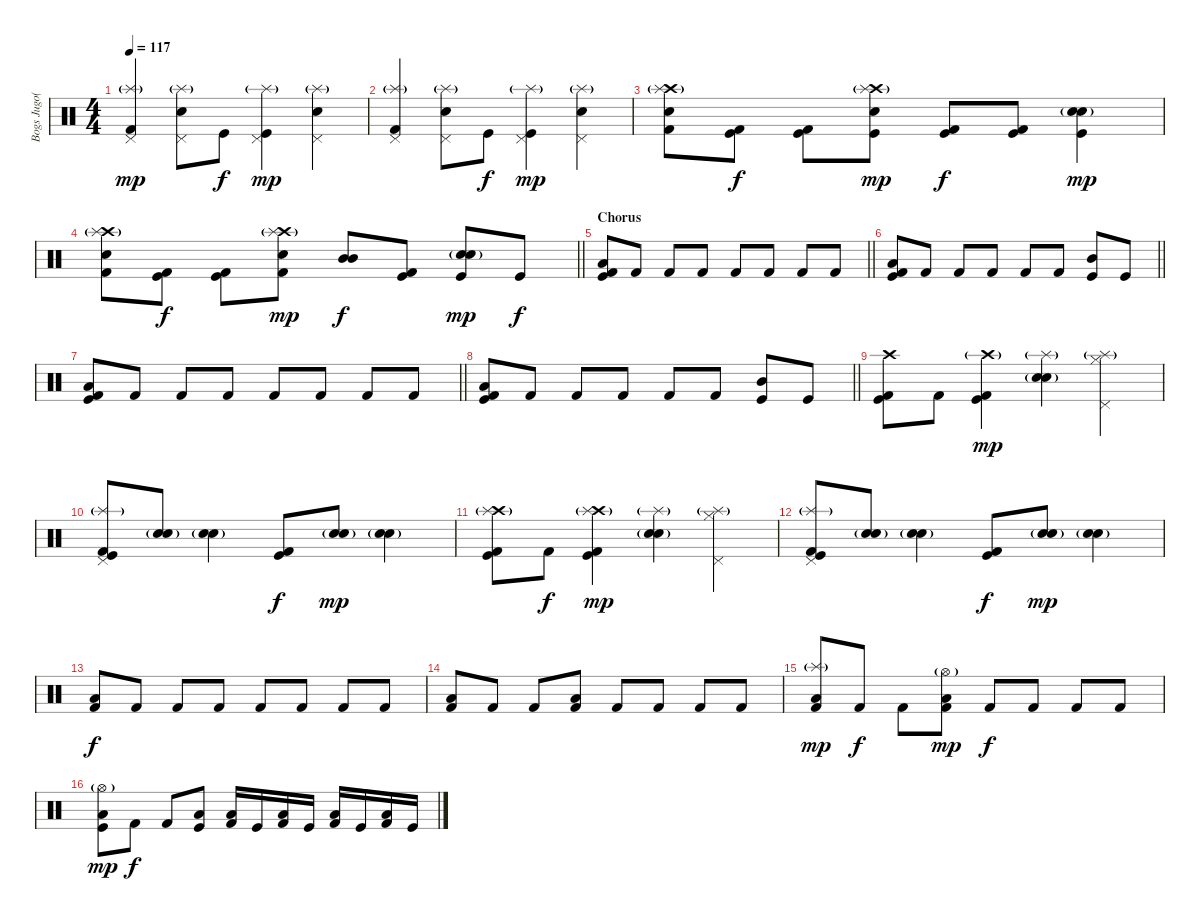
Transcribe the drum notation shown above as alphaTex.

\track ("Bogs Jugo(Drums)" "Bogs Jugo(") {instrument percussion}
\staff {score}
\articulation defaults
\ts (4 4)
\tempo 117
\clef neutral
\ks c
("Kick (hit) 2" "Splash (hit)"{g} "Pedal Hi-Hat (hit)").4{dy mp} ("Electric Snare (hit)" "Splash (hit)"{g} "Pedal Hi-Hat (hit)").8 "Kick (hit)".8{dy f} ("Kick (hit)" "Splash (hit)"{g} "Pedal Hi-Hat (hit)").4{dy mp} ("Electric Snare (hit)" "Splash (hit)"{g} "Pedal Hi-Hat (hit)").4 |
("Kick (hit) 2" "Splash (hit)"{g} "Pedal Hi-Hat (hit)").4 ("Electric Snare (hit)" "Splash (hit)"{g} "Pedal Hi-Hat (hit)").8 "Kick (hit)".8{dy f} ("Kick (hit)" "Splash (hit)"{g} "Pedal Hi-Hat (hit)").4{dy mp} ("Electric Snare (hit)" "Splash (hit)"{g} "Pedal Hi-Hat (hit)").4 |
("Crash high (hit)"{g} "Kick (hit) 2" "Electric Snare (hit)" "Splash (hit)"{g}).8 ("Kick (hit) 2" "Kick (hit)").8{dy f} ("Kick (hit) 2" "Kick (hit)").8 ("Crash high (hit)"{g} "Kick (hit)" "Electric Snare (hit)" "Splash (hit)"{g}).8{dy mp} ("Kick (hit) 2" "Kick (hit)").8{dy f} ("Kick (hit) 2" "Kick (hit)").8 ("Electric Snare (hit)" "Kick (hit)" "Snare (hit) 2"{g}).4{dy mp} |
\barLineRight lightlight
("Crash high (hit)"{g} "Kick (hit) 2" "Electric Snare (hit)" "Splash (hit)"{g}).8 ("Kick (hit) 2" "Kick (hit)").8{dy f} ("Kick (hit) 2" "Kick (hit)").8 ("Crash high (hit)"{g} "Kick (hit) 2" "Electric Snare (hit)" "Splash (hit)"{g}).8{dy mp} ("Mid Tom (hit)" "Mid Tom (hit)").8{dy f} ("Kick (hit) 2" "Kick (hit)").8 ("Electric Snare (hit)" "Kick (hit)" "Snare (hit) 2"{g}).8{dy mp} "Kick (hit)".8{dy f} |
\section ("" "Chorus")
\barLineRight lightlight
("Low Tom (hit)" "Kick (hit)" "Kick (hit) 2").8 "Kick (hit) 2".8 "Kick (hit) 2".8 "Kick (hit) 2".8 "Kick (hit) 2".8 "Kick (hit) 2".8 "Kick (hit) 2".8 "Kick (hit) 2".8 |
\barLineRight lightlight
("Low Tom (hit)" "Kick (hit)" "Kick (hit) 2").8 "Kick (hit) 2".8 "Kick (hit) 2".8 "Kick (hit) 2".8 "Kick (hit) 2".8 "Kick (hit) 2".8 ("Mid Tom (hit)" "Kick (hit)").8 "Kick (hit)".8 |
\barLineRight lightlight
("Low Tom (hit)" "Kick (hit)" "Kick (hit) 2").8 "Kick (hit) 2".8 "Kick (hit) 2".8 "Kick (hit) 2".8 "Kick (hit) 2".8 "Kick (hit) 2".8 "Kick (hit) 2".8 "Kick (hit) 2".8 |
\barLineRight lightlight
("Low Tom (hit)" "Kick (hit)" "Kick (hit) 2").8 "Kick (hit) 2".8 "Kick (hit) 2".8 "Kick (hit) 2".8 "Kick (hit) 2".8 "Kick (hit) 2".8 ("Mid Tom (hit)" "Kick (hit)").8 "Kick (hit)".8 |
("Crash high (hit)" "Kick (hit) 2" "Kick (hit)").8 "Kick (hit) 2".8 ("Kick (hit) 2" "Kick (hit)" "Crash high (hit)"{g}).4{dy mp} ("Electric Snare (hit)" "Snare (hit) 2"{g} "Splash (hit)"{g}).4 ("Pedal Hi-Hat (hit)" "Hi-Hat (closed)" "Splash (hit)"{g}).4 |
("Pedal Hi-Hat (hit)" "Kick (hit) 2" "Kick (hit)" "Splash (hit)"{g}).8 ("Electric Snare (hit)" "Snare (hit) 2"{g}).8 ("Electric Snare (hit)" "Snare (hit) 2"{g}).4 ("Kick (hit) 2" "Kick (hit)").8{dy f} ("Electric Snare (hit)" "Snare (hit) 2"{g}).8{dy mp} ("Electric Snare (hit)" "Snare (hit) 2"{g}).4 |
("Crash high (hit)" "Kick (hit) 2" "Kick (hit)" "Splash (hit)"{g}).8 "Kick (hit) 2".8{dy f} ("Kick (hit) 2" "Kick (hit)" "Crash high (hit)"{g} "Splash (hit)"{g}).4{dy mp} ("Electric Snare (hit)" "Snare (hit) 2"{g} "Splash (hit)"{g}).4 ("Pedal Hi-Hat (hit)" "Hi-Hat (closed)" "Splash (hit)"{g}).4 |
("Pedal Hi-Hat (hit)" "Kick (hit) 2" "Kick (hit)" "Splash (hit)"{g}).8 ("Electric Snare (hit)" "Snare (hit) 2"{g}).8 ("Electric Snare (hit)" "Snare (hit) 2"{g}).4 ("Kick (hit) 2" "Kick (hit)").8{dy f} ("Electric Snare (hit)" "Snare (hit) 2"{g}).8{dy mp} ("Electric Snare (hit)" "Snare (hit) 2"{g}).4 |
("Low Tom (hit)" "Kick (hit) 2").8{dy f} "Kick (hit) 2".8 "Kick (hit) 2".8 "Kick (hit) 2".8 "Kick (hit) 2".8 "Kick (hit) 2".8 "Kick (hit) 2".8 "Kick (hit) 2".8 |
("Low Tom (hit)" "Kick (hit) 2").8 "Kick (hit) 2".8 "Kick (hit) 2".8 ("Low Tom (hit)" "Kick (hit) 2").8 "Kick (hit) 2".8 "Kick (hit) 2".8 "Kick (hit) 2".8 "Kick (hit) 2".8 |
("Low Tom (hit)" "Kick (hit) 2" "Splash (hit)"{g}).8{dy mp} "Kick (hit) 2".8{dy f} "Kick (hit) 2".8 ("Low Tom (hit)" "Kick (hit) 2" "Hi-Hat (open)"{g}).8{dy mp} "Kick (hit) 2".8{dy f} "Kick (hit) 2".8 "Kick (hit) 2".8 "Kick (hit) 2".8 |
("Low Tom (hit)" "Kick (hit)" "Hi-Hat (open)"{g}).8{dy mp} "Kick (hit) 2".8{dy f} "Kick (hit) 2".8 ("Low Tom (hit)" "Kick (hit)").8 ("Low Tom (hit)" "Kick (hit) 2").16 "Kick (hit)".16 ("Low Tom (hit)" "Kick (hit) 2").16 "Kick (hit)".16 ("Low Tom (hit)" "Kick (hit) 2").16 "Kick (hit)".16 ("Low Tom (hit)" "Kick (hit) 2").16 "Kick (hit)".16
